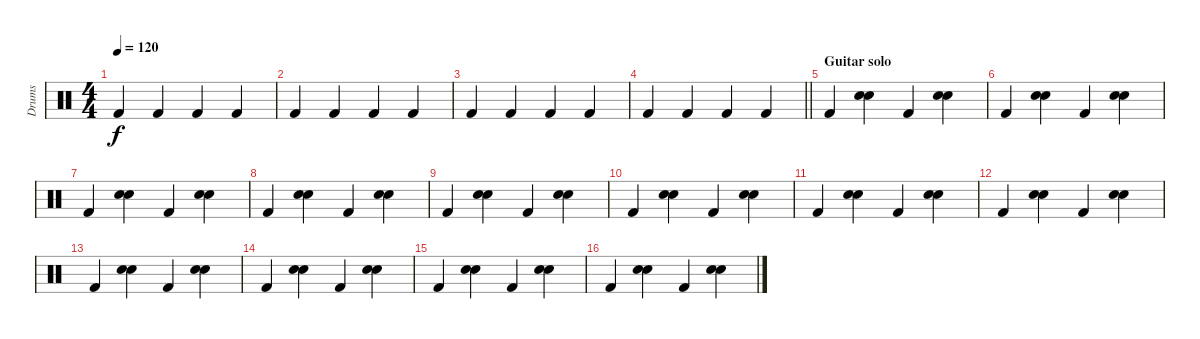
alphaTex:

\track ("Drums" "Drums") {instrument percussion}
\staff {score}
\articulation defaults
\ts (4 4)
\tempo 120
\clef neutral
\ks c "Kick (hit) 2".4{dy f} "Kick (hit) 2".4 "Kick (hit) 2".4 "Kick (hit) 2".4
|
"Kick (hit) 2".4 "Kick (hit) 2".4 "Kick (hit) 2".4 "Kick (hit) 2".4 |
"Kick (hit) 2".4 "Kick (hit) 2".4 "Kick (hit) 2".4 "Kick (hit) 2".4 |
\barLineRight lightlight "Kick (hit) 2".4 "Kick (hit) 2".4 "Kick (hit) 2".4 "Kick (hit) 2".4
|
\section ("" "Guitar solo")
"Kick (hit) 2".4 ("Electric Snare (hit)" "Snare (hit) 2").4 "Kick (hit) 2".4 ("Electric Snare (hit)" "Snare (hit) 2").4 |
"Kick (hit) 2".4 ("Electric Snare (hit)" "Snare (hit) 2").4 "Kick (hit) 2".4 ("Electric Snare (hit)" "Snare (hit) 2").4 |
"Kick (hit) 2".4 ("Electric Snare (hit)" "Snare (hit) 2").4 "Kick (hit) 2".4 ("Electric Snare (hit)" "Snare (hit) 2").4 |
"Kick (hit) 2".4 ("Electric Snare (hit)" "Snare (hit) 2").4 "Kick (hit) 2".4 ("Electric Snare (hit)" "Snare (hit) 2").4 |
"Kick (hit) 2".4 ("Electric Snare (hit)" "Snare (hit) 2").4 "Kick (hit) 2".4 ("Electric Snare (hit)" "Snare (hit) 2").4 |
"Kick (hit) 2".4 ("Electric Snare (hit)" "Snare (hit) 2").4 "Kick (hit) 2".4 ("Electric Snare (hit)" "Snare (hit) 2").4 |
"Kick (hit) 2".4 ("Electric Snare (hit)" "Snare (hit) 2").4 "Kick (hit) 2".4 ("Electric Snare (hit)" "Snare (hit) 2").4 |
"Kick (hit) 2".4 ("Electric Snare (hit)" "Snare (hit) 2").4 "Kick (hit) 2".4 ("Electric Snare (hit)" "Snare (hit) 2").4 |
"Kick (hit) 2".4 ("Electric Snare (hit)" "Snare (hit) 2").4 "Kick (hit) 2".4 ("Electric Snare (hit)" "Snare (hit) 2").4 |
"Kick (hit) 2".4 ("Electric Snare (hit)" "Snare (hit) 2").4 "Kick (hit) 2".4 ("Electric Snare (hit)" "Snare (hit) 2").4 |
"Kick (hit) 2".4 ("Electric Snare (hit)" "Snare (hit) 2").4 "Kick (hit) 2".4 ("Electric Snare (hit)" "Snare (hit) 2").4 |
"Kick (hit) 2".4 ("Electric Snare (hit)" "Snare (hit) 2").4 "Kick (hit) 2".4 ("Electric Snare (hit)" "Snare (hit) 2").4
